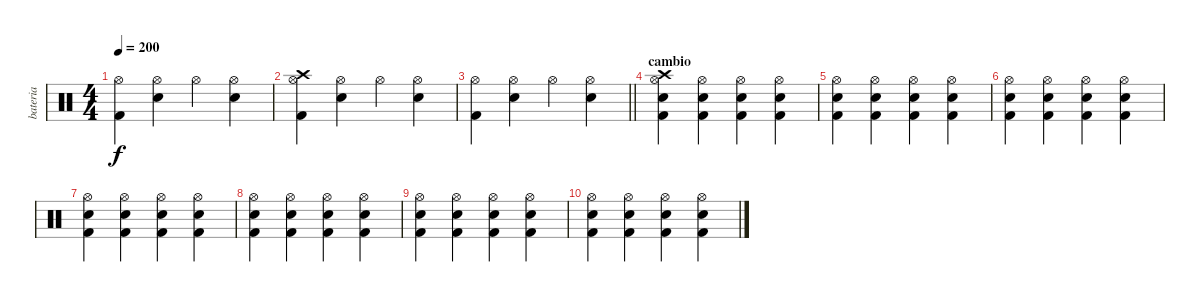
\track ("bateria" "bateria") {instrument percussion}
\staff {score}
\articulation defaults
\ts (4 4)
\tempo 200
\clef neutral
\ks c
("Hi-Hat (open)" "Kick (hit) 2").4{dy f} ("Hi-Hat (open)" "Electric Snare (hit)").4 "Hi-Hat (open)".4 ("Hi-Hat (open)" "Electric Snare (hit)").4 |
("Hi-Hat (open)" "Kick (hit) 2" "Crash high (hit)").4 ("Hi-Hat (open)" "Electric Snare (hit)").4 "Hi-Hat (open)".4 ("Hi-Hat (open)" "Electric Snare (hit)").4 |
\barLineRight lightlight
("Hi-Hat (open)" "Kick (hit) 2").4 ("Hi-Hat (open)" "Electric Snare (hit)").4 "Hi-Hat (open)".4 ("Hi-Hat (open)" "Electric Snare (hit)").4 |
\section ("" "cambio")
("Electric Snare (hit)" "Kick (hit) 2" "Hi-Hat (open)" "Crash high (hit)").4 ("Electric Snare (hit)" "Kick (hit) 2" "Hi-Hat (open)").4 ("Electric Snare (hit)" "Kick (hit) 2" "Hi-Hat (open)").4 ("Electric Snare (hit)" "Kick (hit) 2" "Hi-Hat (open)").4 |
("Electric Snare (hit)" "Kick (hit) 2" "Hi-Hat (open)").4 ("Electric Snare (hit)" "Kick (hit) 2" "Hi-Hat (open)").4 ("Electric Snare (hit)" "Kick (hit) 2" "Hi-Hat (open)").4 ("Electric Snare (hit)" "Kick (hit) 2" "Hi-Hat (open)").4 |
("Electric Snare (hit)" "Kick (hit) 2" "Hi-Hat (open)").4 ("Electric Snare (hit)" "Kick (hit) 2" "Hi-Hat (open)").4 ("Electric Snare (hit)" "Kick (hit) 2" "Hi-Hat (open)").4 ("Electric Snare (hit)" "Kick (hit) 2" "Hi-Hat (open)").4 |
("Electric Snare (hit)" "Kick (hit) 2" "Hi-Hat (open)").4 ("Electric Snare (hit)" "Kick (hit) 2" "Hi-Hat (open)").4 ("Electric Snare (hit)" "Kick (hit) 2" "Hi-Hat (open)").4 ("Electric Snare (hit)" "Kick (hit) 2" "Hi-Hat (open)").4 |
("Electric Snare (hit)" "Kick (hit) 2" "Hi-Hat (open)").4 ("Electric Snare (hit)" "Kick (hit) 2" "Hi-Hat (open)").4 ("Electric Snare (hit)" "Kick (hit) 2" "Hi-Hat (open)").4 ("Electric Snare (hit)" "Kick (hit) 2" "Hi-Hat (open)").4 |
("Electric Snare (hit)" "Kick (hit) 2" "Hi-Hat (open)").4 ("Electric Snare (hit)" "Kick (hit) 2" "Hi-Hat (open)").4 ("Electric Snare (hit)" "Kick (hit) 2" "Hi-Hat (open)").4 ("Electric Snare (hit)" "Kick (hit) 2" "Hi-Hat (open)").4 |
("Electric Snare (hit)" "Kick (hit) 2" "Hi-Hat (open)").4 ("Electric Snare (hit)" "Kick (hit) 2" "Hi-Hat (open)").4 ("Electric Snare (hit)" "Kick (hit) 2" "Hi-Hat (open)").4 ("Electric Snare (hit)" "Kick (hit) 2" "Hi-Hat (open)").4
